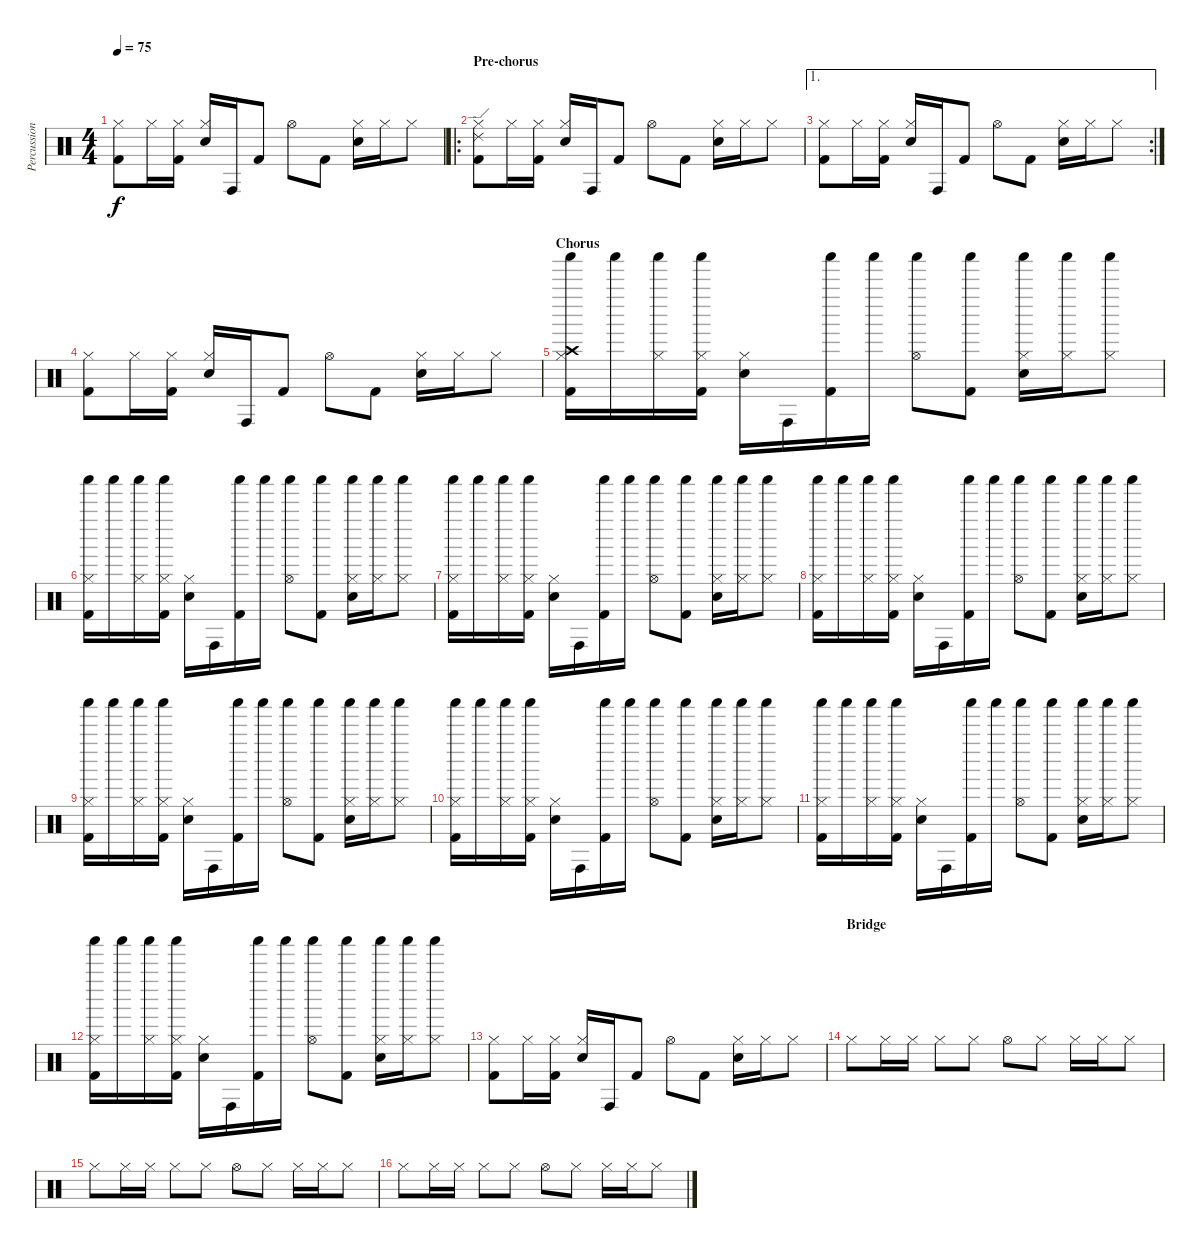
\track ("Percussion" "Percussion") {instrument percussion}
\staff {score}
\articulation defaults
\ts (4 4)
\tempo 75
\clef neutral
\ks c
("Hi-Hat (closed)" "Kick (hit) 2").8{dy f} "Hi-Hat (closed)".16 ("Hi-Hat (closed)" "Kick (hit) 2").16 ("Hi-Hat (closed)" "Electric Snare (hit)").16 "Conga high (hit)".16 "Kick (hit) 2".8 "Hi-Hat (open)".8 "Kick (hit) 2".8 ("Hi-Hat (closed)" "Snare (hit) 2").16 "Hi-Hat (closed)".16 "Hi-Hat (closed)".8 |
\ro
\section ("" "Pre-chorus")
("Ride (edge) 2" "Hi-Hat (closed)" "Kick (hit) 2").8 "Hi-Hat (closed)".16 ("Hi-Hat (closed)" "Kick (hit) 2").16 ("Hi-Hat (closed)" "Electric Snare (hit)").16 "Conga high (hit)".16 "Kick (hit) 2".8 "Hi-Hat (open)".8 "Kick (hit) 2".8 ("Hi-Hat (closed)" "Snare (hit) 2").16 "Hi-Hat (closed)".16 "Hi-Hat (closed)".8 |
\ae 1
\rc 2
("Hi-Hat (closed)" "Kick (hit) 2").8 "Hi-Hat (closed)".16 ("Hi-Hat (closed)" "Kick (hit) 2").16 ("Hi-Hat (closed)" "Electric Snare (hit)").16 "Conga high (hit)".16 "Kick (hit) 2".8 "Hi-Hat (open)".8 "Kick (hit) 2".8 ("Hi-Hat (closed)" "Snare (hit) 2").16 "Hi-Hat (closed)".16 "Hi-Hat (closed)".8 |
("Hi-Hat (closed)" "Kick (hit) 2").8 "Hi-Hat (closed)".16 ("Hi-Hat (closed)" "Kick (hit) 2").16 ("Hi-Hat (closed)" "Electric Snare (hit)").16 "Conga high (hit)".16 "Kick (hit) 2".8 "Hi-Hat (open)".8 "Kick (hit) 2".8 ("Hi-Hat (closed)" "Snare (hit) 2").16 "Hi-Hat (closed)".16 "Hi-Hat (closed)".8 |
\section ("" "Chorus")
("Crash high (hit)" "Hi-Hat (closed)" "Shaker (hit)" "Kick (hit) 2").16 "Shaker (hit)".16 ("Hi-Hat (closed)" "Shaker (hit)").16 ("Hi-Hat (closed)" "Shaker (hit)" "Kick (hit) 2").16 ("Hi-Hat (closed)" "Electric Snare (hit)").16 "Conga high (hit)".16 ("Shaker (hit)" "Kick (hit) 2").16 "Shaker (hit)".16 ("Hi-Hat (open)" "Shaker (hit)").8 ("Shaker (hit)" "Kick (hit) 2").8 ("Hi-Hat (closed)" "Snare (hit) 2" "Shaker (hit)").16 ("Hi-Hat (closed)" "Shaker (hit)").16 ("Hi-Hat (closed)" "Shaker (hit)").8 |
("Hi-Hat (closed)" "Shaker (hit)" "Kick (hit) 2").16 "Shaker (hit)".16 ("Hi-Hat (closed)" "Shaker (hit)").16 ("Hi-Hat (closed)" "Shaker (hit)" "Kick (hit) 2").16 ("Hi-Hat (closed)" "Electric Snare (hit)").16 "Conga high (hit)".16 ("Shaker (hit)" "Kick (hit) 2").16 "Shaker (hit)".16 ("Hi-Hat (open)" "Shaker (hit)").8 ("Shaker (hit)" "Kick (hit) 2").8 ("Hi-Hat (closed)" "Snare (hit) 2" "Shaker (hit)").16 ("Hi-Hat (closed)" "Shaker (hit)").16 ("Hi-Hat (closed)" "Shaker (hit)").8 |
("Hi-Hat (closed)" "Shaker (hit)" "Kick (hit) 2").16 "Shaker (hit)".16 ("Hi-Hat (closed)" "Shaker (hit)").16 ("Hi-Hat (closed)" "Shaker (hit)" "Kick (hit) 2").16 ("Hi-Hat (closed)" "Electric Snare (hit)").16 "Conga high (hit)".16 ("Shaker (hit)" "Kick (hit) 2").16 "Shaker (hit)".16 ("Hi-Hat (open)" "Shaker (hit)").8 ("Shaker (hit)" "Kick (hit) 2").8 ("Hi-Hat (closed)" "Snare (hit) 2" "Shaker (hit)").16 ("Hi-Hat (closed)" "Shaker (hit)").16 ("Hi-Hat (closed)" "Shaker (hit)").8 |
("Hi-Hat (closed)" "Shaker (hit)" "Kick (hit) 2").16 "Shaker (hit)".16 ("Hi-Hat (closed)" "Shaker (hit)").16 ("Hi-Hat (closed)" "Shaker (hit)" "Kick (hit) 2").16 ("Hi-Hat (closed)" "Electric Snare (hit)").16 "Conga high (hit)".16 ("Shaker (hit)" "Kick (hit) 2").16 "Shaker (hit)".16 ("Hi-Hat (open)" "Shaker (hit)").8 ("Shaker (hit)" "Kick (hit) 2").8 ("Hi-Hat (closed)" "Snare (hit) 2" "Shaker (hit)").16 ("Hi-Hat (closed)" "Shaker (hit)").16 ("Hi-Hat (closed)" "Shaker (hit)").8 |
("Hi-Hat (closed)" "Shaker (hit)" "Kick (hit) 2").16 "Shaker (hit)".16 ("Hi-Hat (closed)" "Shaker (hit)").16 ("Hi-Hat (closed)" "Shaker (hit)" "Kick (hit) 2").16 ("Hi-Hat (closed)" "Electric Snare (hit)").16 "Conga high (hit)".16 ("Shaker (hit)" "Kick (hit) 2").16 "Shaker (hit)".16 ("Hi-Hat (open)" "Shaker (hit)").8 ("Shaker (hit)" "Kick (hit) 2").8 ("Hi-Hat (closed)" "Snare (hit) 2" "Shaker (hit)").16 ("Hi-Hat (closed)" "Shaker (hit)").16 ("Hi-Hat (closed)" "Shaker (hit)").8 |
("Hi-Hat (closed)" "Shaker (hit)" "Kick (hit) 2").16 "Shaker (hit)".16 ("Hi-Hat (closed)" "Shaker (hit)").16 ("Hi-Hat (closed)" "Shaker (hit)" "Kick (hit) 2").16 ("Hi-Hat (closed)" "Electric Snare (hit)").16 "Conga high (hit)".16 ("Shaker (hit)" "Kick (hit) 2").16 "Shaker (hit)".16 ("Hi-Hat (open)" "Shaker (hit)").8 ("Shaker (hit)" "Kick (hit) 2").8 ("Hi-Hat (closed)" "Snare (hit) 2" "Shaker (hit)").16 ("Hi-Hat (closed)" "Shaker (hit)").16 ("Hi-Hat (closed)" "Shaker (hit)").8 |
("Hi-Hat (closed)" "Shaker (hit)" "Kick (hit) 2").16 "Shaker (hit)".16 ("Hi-Hat (closed)" "Shaker (hit)").16 ("Hi-Hat (closed)" "Shaker (hit)" "Kick (hit) 2").16 ("Hi-Hat (closed)" "Electric Snare (hit)").16 "Conga high (hit)".16 ("Shaker (hit)" "Kick (hit) 2").16 "Shaker (hit)".16 ("Hi-Hat (open)" "Shaker (hit)").8 ("Shaker (hit)" "Kick (hit) 2").8 ("Hi-Hat (closed)" "Snare (hit) 2" "Shaker (hit)").16 ("Hi-Hat (closed)" "Shaker (hit)").16 ("Hi-Hat (closed)" "Shaker (hit)").8 |
("Hi-Hat (closed)" "Shaker (hit)" "Kick (hit) 2").16 "Shaker (hit)".16 ("Hi-Hat (closed)" "Shaker (hit)").16 ("Hi-Hat (closed)" "Shaker (hit)" "Kick (hit) 2").16 ("Hi-Hat (closed)" "Electric Snare (hit)").16 "Conga high (hit)".16 ("Shaker (hit)" "Kick (hit) 2").16 "Shaker (hit)".16 ("Hi-Hat (open)" "Shaker (hit)").8 ("Shaker (hit)" "Kick (hit) 2").8 ("Hi-Hat (closed)" "Snare (hit) 2" "Shaker (hit)").16 ("Hi-Hat (closed)" "Shaker (hit)").16 ("Hi-Hat (closed)" "Shaker (hit)").8 |
("Hi-Hat (closed)" "Kick (hit) 2").8 "Hi-Hat (closed)".16 ("Hi-Hat (closed)" "Kick (hit) 2").16 ("Hi-Hat (closed)" "Electric Snare (hit)").16 "Conga high (hit)".16 "Kick (hit) 2".8 "Hi-Hat (open)".8 "Kick (hit) 2".8 ("Hi-Hat (closed)" "Snare (hit) 2").16 "Hi-Hat (closed)".16 "Hi-Hat (closed)".8 |
\section ("" "Bridge")
"Hi-Hat (closed)".8 "Hi-Hat (closed)".16 "Hi-Hat (closed)".16 "Hi-Hat (closed)".8 "Hi-Hat (closed)".8 "Hi-Hat (open)".8 "Hi-Hat (closed)".8 "Hi-Hat (closed)".16 "Hi-Hat (closed)".16 "Hi-Hat (closed)".8 |
"Hi-Hat (closed)".8 "Hi-Hat (closed)".16 "Hi-Hat (closed)".16 "Hi-Hat (closed)".8 "Hi-Hat (closed)".8 "Hi-Hat (open)".8 "Hi-Hat (closed)".8 "Hi-Hat (closed)".16 "Hi-Hat (closed)".16 "Hi-Hat (closed)".8 |
"Hi-Hat (closed)".8 "Hi-Hat (closed)".16 "Hi-Hat (closed)".16 "Hi-Hat (closed)".8 "Hi-Hat (closed)".8 "Hi-Hat (open)".8 "Hi-Hat (closed)".8 "Hi-Hat (closed)".16 "Hi-Hat (closed)".16 "Hi-Hat (closed)".8
